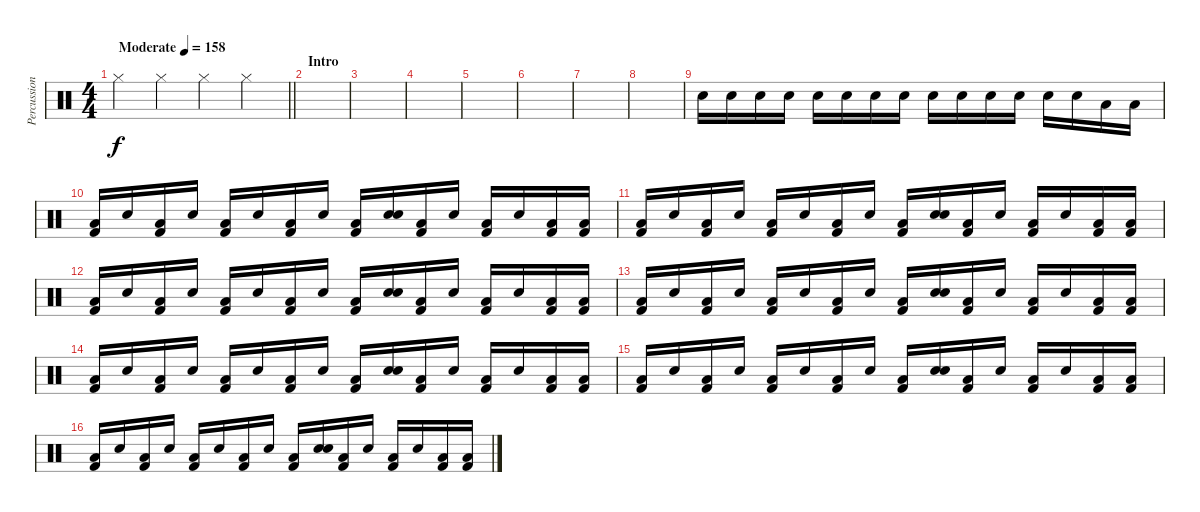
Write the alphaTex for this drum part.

\track ("Percussion" "Percussion") {instrument percussion}
\staff {score}
\articulation defaults
\ts (4 4)
\tempo (158 "Moderate")
\clef neutral
\barLineRight lightlight
\ks c "Hi-Hat (closed)".4{dy f} "Hi-Hat (closed)".4 "Hi-Hat (closed)".4 "Hi-Hat (closed)".4
|
\section ("" "Intro")
|
|
|
|
|
|
|
"Snare (hit)".16 "Snare (hit)".16 "Snare (hit)".16 "Snare (hit)".16 "Snare (hit)".16 "Snare (hit)".16 "Snare (hit)".16 "Snare (hit)".16 "Snare (hit)".16 "Snare (hit)".16 "Snare (hit)".16 "Snare (hit)".16 "Snare (hit)".16 "Snare (hit)".16 "Low Tom (hit)".16 "Low Tom (hit)".16 |
("Low Tom (hit)" "Kick (hit) 2").16 "Snare (hit)".16 ("Low Tom (hit)" "Kick (hit) 2").16 "Snare (hit)".16 ("Low Tom (hit)" "Kick (hit) 2").16 "Snare (hit)".16 ("Low Tom (hit)" "Kick (hit) 2").16 "Snare (hit)".16 ("Low Tom (hit)" "Kick (hit) 2").16 ("Snare (hit)" "Snare (hit)").16 ("Low Tom (hit)" "Kick (hit) 2").16 "Snare (hit)".16 ("Low Tom (hit)" "Kick (hit) 2").16 "Snare (hit)".16 ("Low Tom (hit)" "Kick (hit) 2").16 ("Low Tom (hit)" "Kick (hit) 2").16 |
("Low Tom (hit)" "Kick (hit) 2").16 "Snare (hit)".16 ("Low Tom (hit)" "Kick (hit) 2").16 "Snare (hit)".16 ("Low Tom (hit)" "Kick (hit) 2").16 "Snare (hit)".16 ("Low Tom (hit)" "Kick (hit) 2").16 "Snare (hit)".16 ("Low Tom (hit)" "Kick (hit) 2").16 ("Snare (hit)" "Snare (hit)").16 ("Low Tom (hit)" "Kick (hit) 2").16 "Snare (hit)".16 ("Low Tom (hit)" "Kick (hit) 2").16 "Snare (hit)".16 ("Low Tom (hit)" "Kick (hit) 2").16 ("Low Tom (hit)" "Kick (hit) 2").16 |
("Low Tom (hit)" "Kick (hit) 2").16 "Snare (hit)".16 ("Low Tom (hit)" "Kick (hit) 2").16 "Snare (hit)".16 ("Low Tom (hit)" "Kick (hit) 2").16 "Snare (hit)".16 ("Low Tom (hit)" "Kick (hit) 2").16 "Snare (hit)".16 ("Low Tom (hit)" "Kick (hit) 2").16 ("Snare (hit)" "Snare (hit)").16 ("Low Tom (hit)" "Kick (hit) 2").16 "Snare (hit)".16 ("Low Tom (hit)" "Kick (hit) 2").16 "Snare (hit)".16 ("Low Tom (hit)" "Kick (hit) 2").16 ("Low Tom (hit)" "Kick (hit) 2").16 |
("Low Tom (hit)" "Kick (hit) 2").16 "Snare (hit)".16 ("Low Tom (hit)" "Kick (hit) 2").16 "Snare (hit)".16 ("Low Tom (hit)" "Kick (hit) 2").16 "Snare (hit)".16 ("Low Tom (hit)" "Kick (hit) 2").16 "Snare (hit)".16 ("Low Tom (hit)" "Kick (hit) 2").16 ("Snare (hit)" "Snare (hit)").16 ("Low Tom (hit)" "Kick (hit) 2").16 "Snare (hit)".16 ("Low Tom (hit)" "Kick (hit) 2").16 "Snare (hit)".16 ("Low Tom (hit)" "Kick (hit) 2").16 ("Low Tom (hit)" "Kick (hit) 2").16 |
("Low Tom (hit)" "Kick (hit) 2").16 "Snare (hit)".16 ("Low Tom (hit)" "Kick (hit) 2").16 "Snare (hit)".16 ("Low Tom (hit)" "Kick (hit) 2").16 "Snare (hit)".16 ("Low Tom (hit)" "Kick (hit) 2").16 "Snare (hit)".16 ("Low Tom (hit)" "Kick (hit) 2").16 ("Snare (hit)" "Snare (hit)").16 ("Low Tom (hit)" "Kick (hit) 2").16 "Snare (hit)".16 ("Low Tom (hit)" "Kick (hit) 2").16 "Snare (hit)".16 ("Low Tom (hit)" "Kick (hit) 2").16 ("Low Tom (hit)" "Kick (hit) 2").16 |
("Low Tom (hit)" "Kick (hit) 2").16 "Snare (hit)".16 ("Low Tom (hit)" "Kick (hit) 2").16 "Snare (hit)".16 ("Low Tom (hit)" "Kick (hit) 2").16 "Snare (hit)".16 ("Low Tom (hit)" "Kick (hit) 2").16 "Snare (hit)".16 ("Low Tom (hit)" "Kick (hit) 2").16 ("Snare (hit)" "Snare (hit)").16 ("Low Tom (hit)" "Kick (hit) 2").16 "Snare (hit)".16 ("Low Tom (hit)" "Kick (hit) 2").16 "Snare (hit)".16 ("Low Tom (hit)" "Kick (hit) 2").16 ("Low Tom (hit)" "Kick (hit) 2").16 |
("Low Tom (hit)" "Kick (hit) 2").16 "Snare (hit)".16 ("Low Tom (hit)" "Kick (hit) 2").16 "Snare (hit)".16 ("Low Tom (hit)" "Kick (hit) 2").16 "Snare (hit)".16 ("Low Tom (hit)" "Kick (hit) 2").16 "Snare (hit)".16 ("Low Tom (hit)" "Kick (hit) 2").16 ("Snare (hit)" "Snare (hit)").16 ("Low Tom (hit)" "Kick (hit) 2").16 "Snare (hit)".16 ("Low Tom (hit)" "Kick (hit) 2").16 "Snare (hit)".16 ("Low Tom (hit)" "Kick (hit) 2").16 ("Low Tom (hit)" "Kick (hit) 2").16
